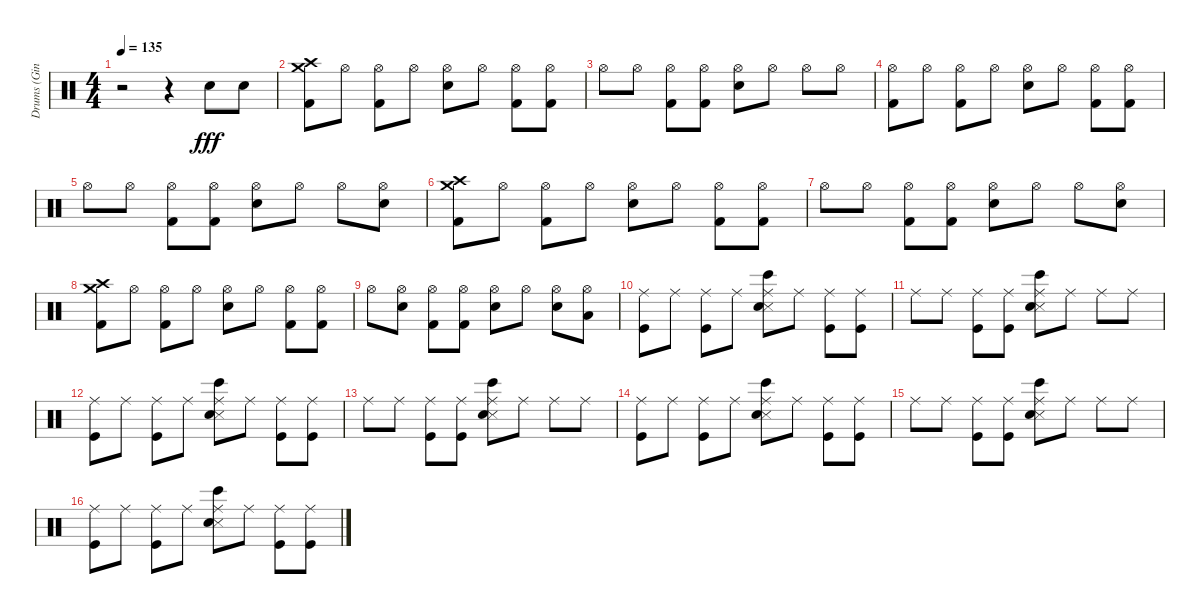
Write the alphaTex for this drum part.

\track ("Drums (Ginger Fish)" "Drums (Gin") {instrument percussion}
\staff {score}
\articulation defaults
\ts (4 4)
\tempo 135
\clef neutral
\ks c
r.2{dy fff} r.4 "Electric Snare (hit)".8 "Electric Snare (hit)".8 |
("Crash high (hit)" "Crash medium (hit)" "Kick (hit) 2").8 "Hi-Hat (open)".8 ("Hi-Hat (open)" "Kick (hit) 2").8 "Hi-Hat (open)".8 ("Hi-Hat (open)" "Electric Snare (hit)").8 "Hi-Hat (open)".8 ("Hi-Hat (open)" "Kick (hit) 2").8 ("Hi-Hat (open)" "Kick (hit) 2").8 |
"Hi-Hat (open)".8 "Hi-Hat (open)".8 ("Hi-Hat (open)" "Kick (hit) 2").8 ("Hi-Hat (open)" "Kick (hit) 2").8 ("Hi-Hat (open)" "Electric Snare (hit)").8 "Hi-Hat (open)".8 "Hi-Hat (open)".8 "Hi-Hat (open)".8 |
("Hi-Hat (open)" "Kick (hit) 2").8 "Hi-Hat (open)".8 ("Hi-Hat (open)" "Kick (hit) 2").8 "Hi-Hat (open)".8 ("Hi-Hat (open)" "Electric Snare (hit)").8 "Hi-Hat (open)".8 ("Hi-Hat (open)" "Kick (hit) 2").8 ("Hi-Hat (open)" "Kick (hit) 2").8 |
"Hi-Hat (open)".8 "Hi-Hat (open)".8 ("Hi-Hat (open)" "Kick (hit) 2").8 ("Hi-Hat (open)" "Kick (hit) 2").8 ("Hi-Hat (open)" "Electric Snare (hit)").8 "Hi-Hat (open)".8 "Hi-Hat (open)".8 ("Hi-Hat (open)" "Electric Snare (hit)").8 |
("Crash high (hit)" "Crash medium (hit)" "Kick (hit) 2").8 "Hi-Hat (open)".8 ("Hi-Hat (open)" "Kick (hit) 2").8 "Hi-Hat (open)".8 ("Hi-Hat (open)" "Electric Snare (hit)").8 "Hi-Hat (open)".8 ("Hi-Hat (open)" "Kick (hit) 2").8 ("Hi-Hat (open)" "Kick (hit) 2").8 |
"Hi-Hat (open)".8 "Hi-Hat (open)".8 ("Hi-Hat (open)" "Kick (hit) 2").8 ("Hi-Hat (open)" "Kick (hit) 2").8 ("Hi-Hat (open)" "Electric Snare (hit)").8 "Hi-Hat (open)".8 "Hi-Hat (open)".8 ("Hi-Hat (open)" "Electric Snare (hit)").8 |
("Crash high (hit)" "Crash medium (hit)" "Kick (hit) 2").8 "Hi-Hat (open)".8 ("Hi-Hat (open)" "Kick (hit) 2").8 "Hi-Hat (open)".8 ("Hi-Hat (open)" "Electric Snare (hit)").8 "Hi-Hat (open)".8 ("Hi-Hat (open)" "Kick (hit) 2").8 ("Hi-Hat (open)" "Kick (hit) 2").8 |
"Hi-Hat (open)".8 ("Hi-Hat (open)" "Electric Snare (hit)").8 ("Hi-Hat (open)" "Kick (hit) 2").8 ("Hi-Hat (open)" "Kick (hit) 2").8 ("Hi-Hat (open)" "Electric Snare (hit)").8 "Hi-Hat (open)".8 ("Hi-Hat (open)" "Electric Snare (hit)").8 ("Hi-Hat (open)" "Low Tom (hit)").8 |
("Ride (middle)" "Kick (hit)").8 "Ride (middle)".8 ("Ride (middle)" "Kick (hit)").8 "Ride (middle)".8 ("Ride (middle)" "Snare (side stick) 3" "Snare (hit) 2" "Bongo High (hit)").8 "Ride (middle)".8 ("Ride (middle)" "Kick (hit)").8 ("Ride (middle)" "Kick (hit)").8 |
"Ride (middle)".8 "Ride (middle)".8 ("Ride (middle)" "Kick (hit)").8 ("Ride (middle)" "Kick (hit)").8 ("Ride (middle)" "Snare (side stick) 3" "Snare (hit) 2" "Bongo High (hit)").8 "Ride (middle)".8 "Ride (middle)".8 "Ride (middle)".8 |
("Ride (middle)" "Kick (hit)").8 "Ride (middle)".8 ("Ride (middle)" "Kick (hit)").8 "Ride (middle)".8 ("Ride (middle)" "Snare (side stick) 3" "Snare (hit) 2" "Bongo High (hit)").8 "Ride (middle)".8 ("Ride (middle)" "Kick (hit)").8 ("Ride (middle)" "Kick (hit)").8 |
"Ride (middle)".8 "Ride (middle)".8 ("Ride (middle)" "Kick (hit)").8 ("Ride (middle)" "Kick (hit)").8 ("Ride (middle)" "Snare (side stick) 3" "Snare (hit) 2" "Bongo High (hit)").8 "Ride (middle)".8 "Ride (middle)".8 "Ride (middle)".8 |
("Ride (middle)" "Kick (hit)").8 "Ride (middle)".8 ("Ride (middle)" "Kick (hit)").8 "Ride (middle)".8 ("Ride (middle)" "Snare (side stick) 3" "Snare (hit) 2" "Bongo High (hit)").8 "Ride (middle)".8 ("Ride (middle)" "Kick (hit)").8 ("Ride (middle)" "Kick (hit)").8 |
"Ride (middle)".8 "Ride (middle)".8 ("Ride (middle)" "Kick (hit)").8 ("Ride (middle)" "Kick (hit)").8 ("Ride (middle)" "Snare (side stick) 3" "Snare (hit) 2" "Bongo High (hit)").8 "Ride (middle)".8 "Ride (middle)".8 "Ride (middle)".8 |
("Ride (middle)" "Kick (hit)").8 "Ride (middle)".8 ("Ride (middle)" "Kick (hit)").8 "Ride (middle)".8 ("Ride (middle)" "Snare (side stick) 3" "Snare (hit) 2" "Bongo High (hit)").8 "Ride (middle)".8 ("Ride (middle)" "Kick (hit)").8 ("Ride (middle)" "Kick (hit)").8
